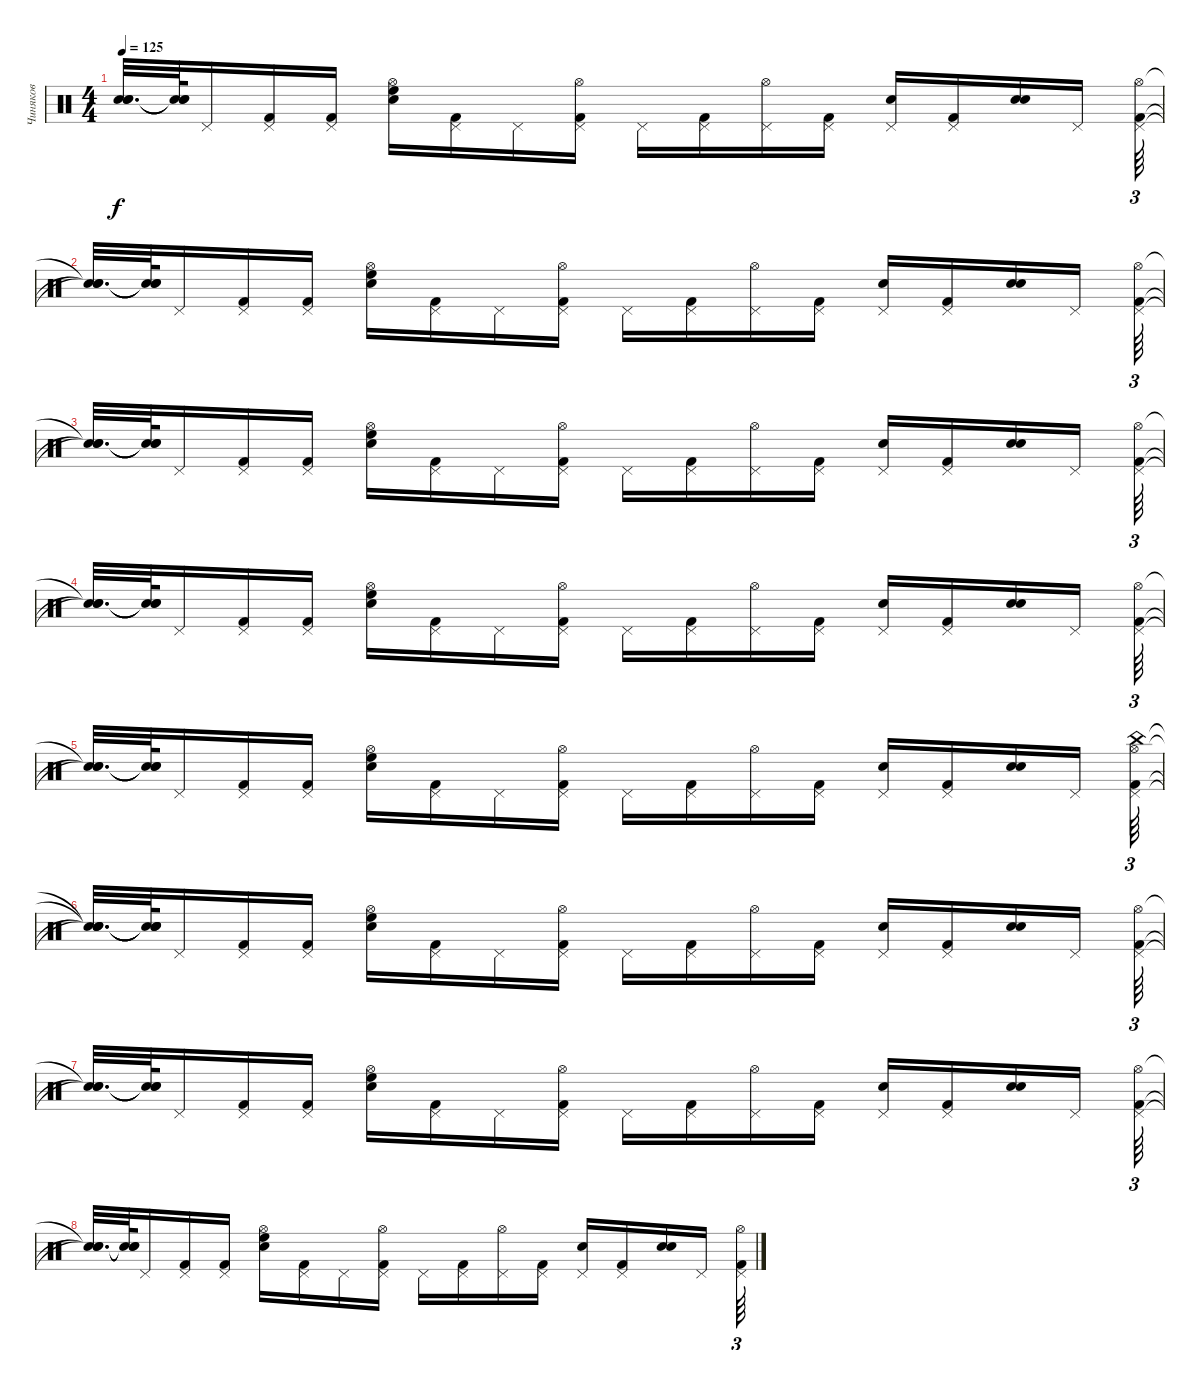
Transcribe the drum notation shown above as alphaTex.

\track ("Чиняков" "Чиняков") {instrument percussion}
\staff {score}
\articulation defaults
\ts (4 4)
\tempo 125
\clef neutral
\ks c
("Snare (hit)"{t} "Snare (hit)"{t} "Snare (hit)"{t}).32{d dy f} ("Snare (hit)"{t} "Snare (hit)"{t} "Snare (hit)"{t}).64 "Pedal Hi-Hat (hit)".16 ("Pedal Hi-Hat (hit)" "Kick (hit) 2").16 ("Pedal Hi-Hat (hit)" "Kick (hit) 2").16 ("Electric Snare (hit)" "High Floor Tom (hit)" "Hi-Hat (open)").16 ("Pedal Hi-Hat (hit)" "Kick (hit) 2").16 "Pedal Hi-Hat (hit)".16 ("Pedal Hi-Hat (hit)" "Kick (hit) 2" "Hi-Hat (open)").16 "Pedal Hi-Hat (hit)".16 ("Pedal Hi-Hat (hit)" "Kick (hit) 2").16 ("Pedal Hi-Hat (hit)" "Hi-Hat (open)").16 ("Pedal Hi-Hat (hit)" "Kick (hit) 2").16 ("Pedal Hi-Hat (hit)" "Electric Snare (hit)").16 ("Pedal Hi-Hat (hit)" "Kick (hit) 2").16 ("Electric Snare (hit)" "Electric Snare (hit)").16 "Pedal Hi-Hat (hit)".16 ("Pedal Hi-Hat (hit)" "Kick (hit) 2" "Hi-Hat (open)").64{tu (3 2)} |
("Snare (hit)"{t} "Snare (hit)"{t} "Snare (hit)"{t}).32{d} ("Snare (hit)"{t} "Snare (hit)"{t} "Snare (hit)"{t}).64 "Pedal Hi-Hat (hit)".16 ("Pedal Hi-Hat (hit)" "Kick (hit) 2").16 ("Pedal Hi-Hat (hit)" "Kick (hit) 2").16 ("Electric Snare (hit)" "High Floor Tom (hit)" "Hi-Hat (open)").16 ("Pedal Hi-Hat (hit)" "Kick (hit) 2").16 "Pedal Hi-Hat (hit)".16 ("Pedal Hi-Hat (hit)" "Kick (hit) 2" "Hi-Hat (open)").16 "Pedal Hi-Hat (hit)".16 ("Pedal Hi-Hat (hit)" "Kick (hit) 2").16 ("Pedal Hi-Hat (hit)" "Hi-Hat (open)").16 ("Pedal Hi-Hat (hit)" "Kick (hit) 2").16 ("Pedal Hi-Hat (hit)" "Electric Snare (hit)").16 ("Pedal Hi-Hat (hit)" "Kick (hit) 2").16 ("Electric Snare (hit)" "Electric Snare (hit)").16 "Pedal Hi-Hat (hit)".16 ("Pedal Hi-Hat (hit)" "Kick (hit) 2" "Hi-Hat (open)").64{tu (3 2)} |
("Snare (hit)"{t} "Snare (hit)"{t} "Snare (hit)"{t}).32{d} ("Snare (hit)"{t} "Snare (hit)"{t} "Snare (hit)"{t}).64 "Pedal Hi-Hat (hit)".16 ("Pedal Hi-Hat (hit)" "Kick (hit) 2").16 ("Pedal Hi-Hat (hit)" "Kick (hit) 2").16 ("Electric Snare (hit)" "High Floor Tom (hit)" "Hi-Hat (open)").16 ("Pedal Hi-Hat (hit)" "Kick (hit) 2").16 "Pedal Hi-Hat (hit)".16 ("Pedal Hi-Hat (hit)" "Kick (hit) 2" "Hi-Hat (open)").16 "Pedal Hi-Hat (hit)".16 ("Pedal Hi-Hat (hit)" "Kick (hit) 2").16 ("Pedal Hi-Hat (hit)" "Hi-Hat (open)").16 ("Pedal Hi-Hat (hit)" "Kick (hit) 2").16 ("Pedal Hi-Hat (hit)" "Electric Snare (hit)").16 ("Pedal Hi-Hat (hit)" "Kick (hit) 2").16 ("Electric Snare (hit)" "Electric Snare (hit)").16 "Pedal Hi-Hat (hit)".16 ("Pedal Hi-Hat (hit)" "Kick (hit) 2" "Hi-Hat (open)").64{tu (3 2)} |
("Snare (hit)"{t} "Snare (hit)"{t} "Snare (hit)"{t}).32{d} ("Snare (hit)"{t} "Snare (hit)"{t} "Snare (hit)"{t}).64 "Pedal Hi-Hat (hit)".16 ("Pedal Hi-Hat (hit)" "Kick (hit) 2").16 ("Pedal Hi-Hat (hit)" "Kick (hit) 2").16 ("Electric Snare (hit)" "High Floor Tom (hit)" "Hi-Hat (open)").16 ("Pedal Hi-Hat (hit)" "Kick (hit) 2").16 "Pedal Hi-Hat (hit)".16 ("Pedal Hi-Hat (hit)" "Kick (hit) 2" "Hi-Hat (open)").16 "Pedal Hi-Hat (hit)".16 ("Pedal Hi-Hat (hit)" "Kick (hit) 2").16 ("Pedal Hi-Hat (hit)" "Hi-Hat (open)").16 ("Pedal Hi-Hat (hit)" "Kick (hit) 2").16 ("Pedal Hi-Hat (hit)" "Electric Snare (hit)").16 ("Pedal Hi-Hat (hit)" "Kick (hit) 2").16 ("Electric Snare (hit)" "Electric Snare (hit)").16 "Pedal Hi-Hat (hit)".16 ("Pedal Hi-Hat (hit)" "Kick (hit) 2" "Hi-Hat (open)").64{tu (3 2)} |
("Snare (hit)"{t} "Snare (hit)"{t} "Snare (hit)"{t}).32{d} ("Snare (hit)"{t} "Snare (hit)"{t} "Snare (hit)"{t}).64 "Pedal Hi-Hat (hit)".16 ("Pedal Hi-Hat (hit)" "Kick (hit) 2").16 ("Pedal Hi-Hat (hit)" "Kick (hit) 2").16 ("Electric Snare (hit)" "High Floor Tom (hit)" "Hi-Hat (open)").16 ("Pedal Hi-Hat (hit)" "Kick (hit) 2").16 "Pedal Hi-Hat (hit)".16 ("Pedal Hi-Hat (hit)" "Kick (hit) 2" "Hi-Hat (open)").16 "Pedal Hi-Hat (hit)".16 ("Pedal Hi-Hat (hit)" "Kick (hit) 2").16 ("Pedal Hi-Hat (hit)" "Hi-Hat (open)").16 ("Pedal Hi-Hat (hit)" "Kick (hit) 2").16 ("Pedal Hi-Hat (hit)" "Electric Snare (hit)").16 ("Pedal Hi-Hat (hit)" "Kick (hit) 2").16 ("Electric Snare (hit)" "Electric Snare (hit)").16 "Pedal Hi-Hat (hit)".16 ("Pedal Hi-Hat (hit)" "Kick (hit) 2" "Hi-Hat (open)" "China (hit)").64{tu (3 2)} |
("Snare (hit)"{t} "Snare (hit)"{t} "Snare (hit)"{t} "Snare (hit)"{t}).32{d} ("Snare (hit)"{t} "Snare (hit)"{t} "Snare (hit)"{t} "Snare (hit)"{t}).64 "Pedal Hi-Hat (hit)".16 ("Pedal Hi-Hat (hit)" "Kick (hit) 2").16 ("Pedal Hi-Hat (hit)" "Kick (hit) 2").16 ("Electric Snare (hit)" "High Floor Tom (hit)" "Hi-Hat (open)").16 ("Pedal Hi-Hat (hit)" "Kick (hit) 2").16 "Pedal Hi-Hat (hit)".16 ("Pedal Hi-Hat (hit)" "Kick (hit) 2" "Hi-Hat (open)").16 "Pedal Hi-Hat (hit)".16 ("Pedal Hi-Hat (hit)" "Kick (hit) 2").16 ("Pedal Hi-Hat (hit)" "Hi-Hat (open)").16 ("Pedal Hi-Hat (hit)" "Kick (hit) 2").16 ("Pedal Hi-Hat (hit)" "Electric Snare (hit)").16 ("Pedal Hi-Hat (hit)" "Kick (hit) 2").16 ("Electric Snare (hit)" "Electric Snare (hit)").16 "Pedal Hi-Hat (hit)".16 ("Pedal Hi-Hat (hit)" "Kick (hit) 2" "Hi-Hat (open)").64{tu (3 2)} |
("Snare (hit)"{t} "Snare (hit)"{t} "Snare (hit)"{t}).32{d} ("Snare (hit)"{t} "Snare (hit)"{t} "Snare (hit)"{t}).64 "Pedal Hi-Hat (hit)".16 ("Pedal Hi-Hat (hit)" "Kick (hit) 2").16 ("Pedal Hi-Hat (hit)" "Kick (hit) 2").16 ("Electric Snare (hit)" "High Floor Tom (hit)" "Hi-Hat (open)").16 ("Pedal Hi-Hat (hit)" "Kick (hit) 2").16 "Pedal Hi-Hat (hit)".16 ("Pedal Hi-Hat (hit)" "Kick (hit) 2" "Hi-Hat (open)").16 "Pedal Hi-Hat (hit)".16 ("Pedal Hi-Hat (hit)" "Kick (hit) 2").16 ("Pedal Hi-Hat (hit)" "Hi-Hat (open)").16 ("Pedal Hi-Hat (hit)" "Kick (hit) 2").16 ("Pedal Hi-Hat (hit)" "Electric Snare (hit)").16 ("Pedal Hi-Hat (hit)" "Kick (hit) 2").16 ("Electric Snare (hit)" "Electric Snare (hit)").16 "Pedal Hi-Hat (hit)".16 ("Pedal Hi-Hat (hit)" "Kick (hit) 2" "Hi-Hat (open)").64{tu (3 2)} |
("Snare (hit)"{t} "Snare (hit)"{t} "Snare (hit)"{t}).32{d} ("Snare (hit)"{t} "Snare (hit)"{t} "Snare (hit)"{t}).64 "Pedal Hi-Hat (hit)".16 ("Pedal Hi-Hat (hit)" "Kick (hit) 2").16 ("Pedal Hi-Hat (hit)" "Kick (hit) 2").16 ("Electric Snare (hit)" "High Floor Tom (hit)" "Hi-Hat (open)").16 ("Pedal Hi-Hat (hit)" "Kick (hit) 2").16 "Pedal Hi-Hat (hit)".16 ("Pedal Hi-Hat (hit)" "Kick (hit) 2" "Hi-Hat (open)").16 "Pedal Hi-Hat (hit)".16 ("Pedal Hi-Hat (hit)" "Kick (hit) 2").16 ("Pedal Hi-Hat (hit)" "Hi-Hat (open)").16 ("Pedal Hi-Hat (hit)" "Kick (hit) 2").16 ("Pedal Hi-Hat (hit)" "Electric Snare (hit)").16 ("Pedal Hi-Hat (hit)" "Kick (hit) 2").16 ("Electric Snare (hit)" "Electric Snare (hit)").16 "Pedal Hi-Hat (hit)".16 ("Pedal Hi-Hat (hit)" "Kick (hit) 2" "Hi-Hat (open)").64{tu (3 2)}
